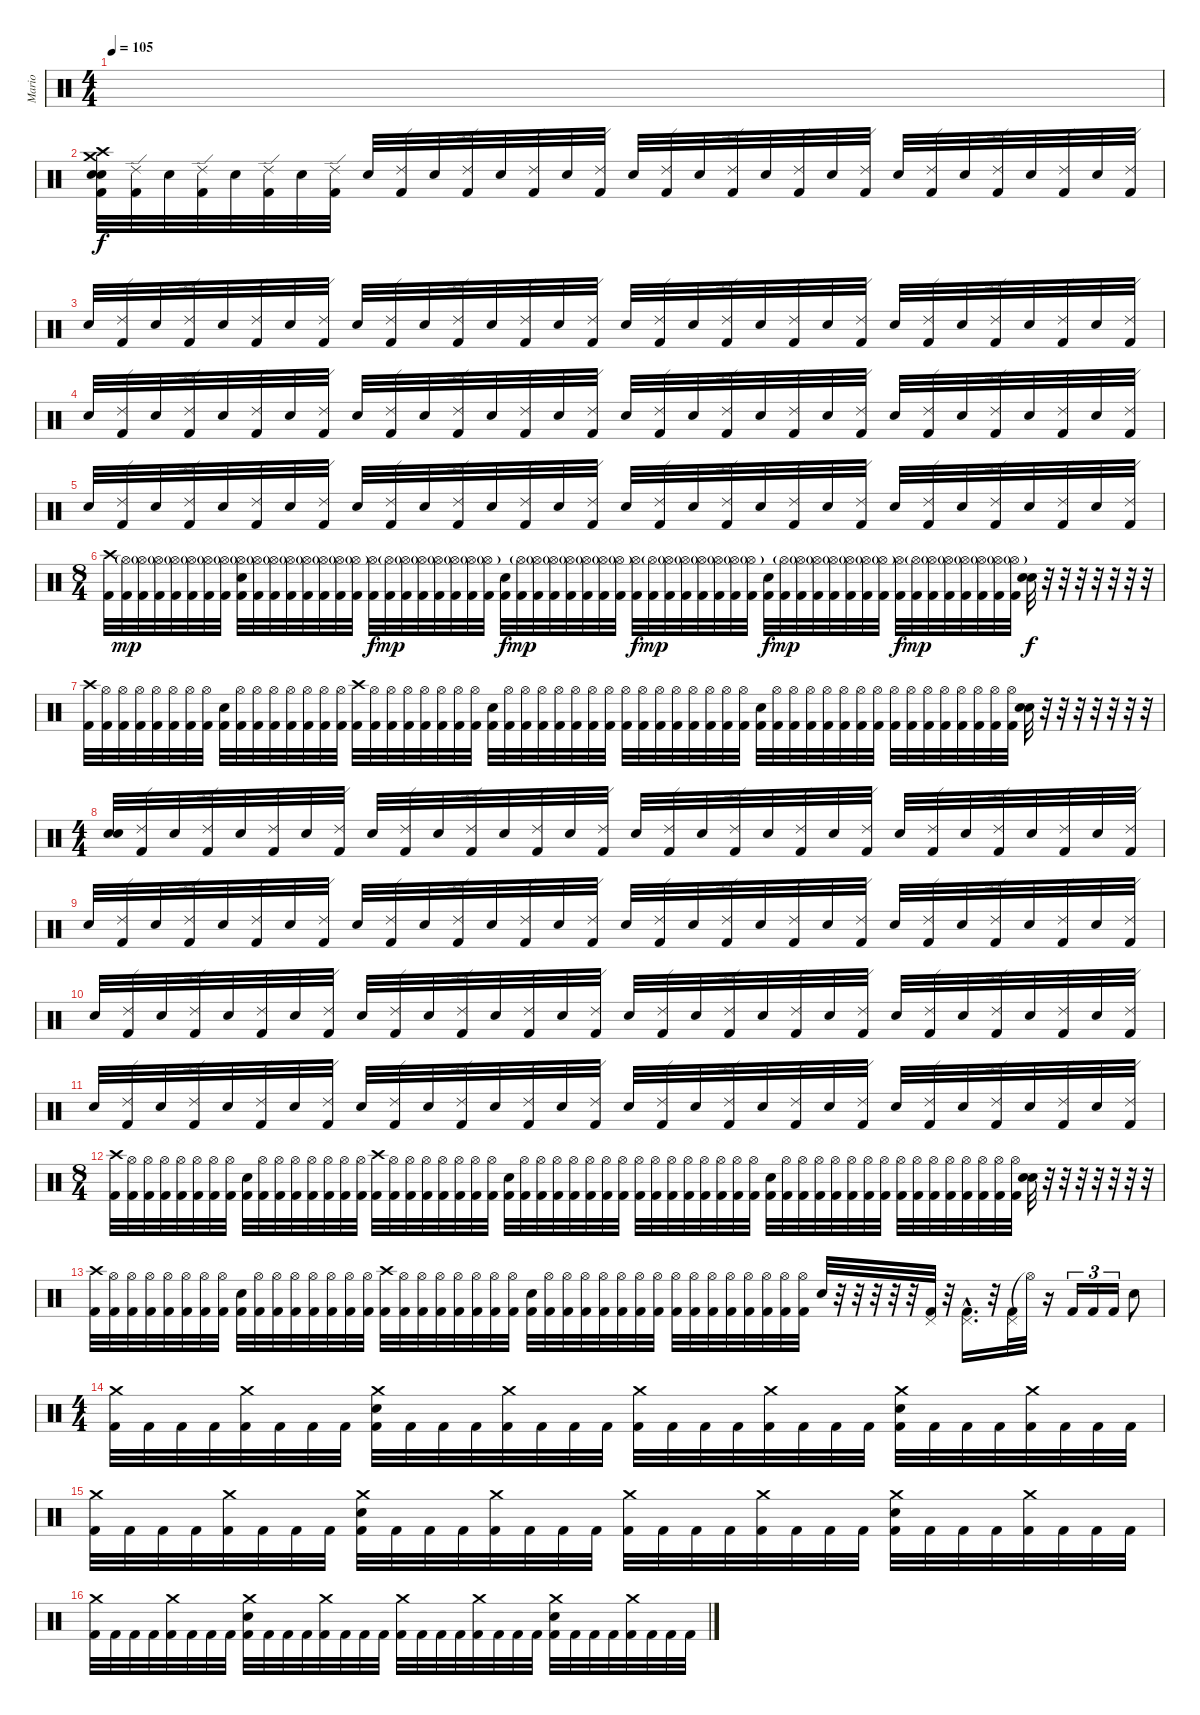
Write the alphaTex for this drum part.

\track ("Mario" "Mario") {instrument percussion}
\staff {score}
\articulation defaults
\ts (4 4)
\tempo 105
\clef neutral
\ks c
|
("Crash medium (hit)" "Crash high (hit)" "Snare (hit) 2" "Snare (hit) 2" "Kick (hit) 2").32 ("Ride (edge) 2" "Kick (hit) 2").32 "Snare (hit) 2".32 ("Ride (edge) 2" "Kick (hit) 2").32 "Snare (hit) 2".32 ("Ride (edge) 2" "Kick (hit) 2").32 "Snare (hit) 2".32 ("Ride (edge) 2" "Kick (hit) 2").32 "Snare (hit) 2".32 ("Ride (edge) 2" "Kick (hit) 2").32 "Snare (hit) 2".32 ("Ride (edge) 2" "Kick (hit) 2").32 "Snare (hit) 2".32 ("Ride (edge) 2" "Kick (hit) 2").32 "Snare (hit) 2".32 ("Ride (edge) 2" "Kick (hit) 2").32 "Snare (hit) 2".32 ("Ride (edge) 2" "Kick (hit) 2").32 "Snare (hit) 2".32 ("Ride (edge) 2" "Kick (hit) 2").32 "Snare (hit) 2".32 ("Ride (edge) 2" "Kick (hit) 2").32 "Snare (hit) 2".32 ("Ride (edge) 2" "Kick (hit) 2").32 "Snare (hit) 2".32 ("Ride (edge) 2" "Kick (hit) 2").32 "Snare (hit) 2".32 ("Ride (edge) 2" "Kick (hit) 2").32 "Snare (hit) 2".32 ("Ride (edge) 2" "Kick (hit) 2").32 "Snare (hit) 2".32 ("Ride (edge) 2" "Kick (hit) 2").32 |
"Snare (hit) 2".32 ("Ride (edge) 2" "Kick (hit) 2").32 "Snare (hit) 2".32 ("Ride (edge) 2" "Kick (hit) 2").32 "Snare (hit) 2".32 ("Ride (edge) 2" "Kick (hit) 2").32 "Snare (hit) 2".32 ("Ride (edge) 2" "Kick (hit) 2").32 "Snare (hit) 2".32 ("Ride (edge) 2" "Kick (hit) 2").32 "Snare (hit) 2".32 ("Ride (edge) 2" "Kick (hit) 2").32 "Snare (hit) 2".32 ("Ride (edge) 2" "Kick (hit) 2").32 "Snare (hit) 2".32 ("Ride (edge) 2" "Kick (hit) 2").32 "Snare (hit) 2".32 ("Ride (edge) 2" "Kick (hit) 2").32 "Snare (hit) 2".32 ("Ride (edge) 2" "Kick (hit) 2").32 "Snare (hit) 2".32 ("Ride (edge) 2" "Kick (hit) 2").32 "Snare (hit) 2".32 ("Ride (edge) 2" "Kick (hit) 2").32 "Snare (hit) 2".32 ("Ride (edge) 2" "Kick (hit) 2").32 "Snare (hit) 2".32 ("Ride (edge) 2" "Kick (hit) 2").32 "Snare (hit) 2".32 ("Ride (edge) 2" "Kick (hit) 2").32 "Snare (hit) 2".32 ("Ride (edge) 2" "Kick (hit) 2").32 |
"Snare (hit) 2".32 ("Ride (edge) 2" "Kick (hit) 2").32 "Snare (hit) 2".32 ("Ride (edge) 2" "Kick (hit) 2").32 "Snare (hit) 2".32 ("Ride (edge) 2" "Kick (hit) 2").32 "Snare (hit) 2".32 ("Ride (edge) 2" "Kick (hit) 2").32 "Snare (hit) 2".32 ("Ride (edge) 2" "Kick (hit) 2").32 "Snare (hit) 2".32 ("Ride (edge) 2" "Kick (hit) 2").32 "Snare (hit) 2".32 ("Ride (edge) 2" "Kick (hit) 2").32 "Snare (hit) 2".32 ("Ride (edge) 2" "Kick (hit) 2").32 "Snare (hit) 2".32 ("Ride (edge) 2" "Kick (hit) 2").32 "Snare (hit) 2".32 ("Ride (edge) 2" "Kick (hit) 2").32 "Snare (hit) 2".32 ("Ride (edge) 2" "Kick (hit) 2").32 "Snare (hit) 2".32 ("Ride (edge) 2" "Kick (hit) 2").32 "Snare (hit) 2".32 ("Ride (edge) 2" "Kick (hit) 2").32 "Snare (hit) 2".32 ("Ride (edge) 2" "Kick (hit) 2").32 "Snare (hit) 2".32 ("Ride (edge) 2" "Kick (hit) 2").32 "Snare (hit) 2".32 ("Ride (edge) 2" "Kick (hit) 2").32 |
"Snare (hit) 2".32 ("Ride (edge) 2" "Kick (hit) 2").32 "Snare (hit) 2".32 ("Ride (edge) 2" "Kick (hit) 2").32 "Snare (hit) 2".32 ("Ride (edge) 2" "Kick (hit) 2").32 "Snare (hit) 2".32 ("Ride (edge) 2" "Kick (hit) 2").32 "Snare (hit) 2".32 ("Ride (edge) 2" "Kick (hit) 2").32 "Snare (hit) 2".32 ("Ride (edge) 2" "Kick (hit) 2").32 "Snare (hit) 2".32 ("Ride (edge) 2" "Kick (hit) 2").32 "Snare (hit) 2".32 ("Ride (edge) 2" "Kick (hit) 2").32 "Snare (hit) 2".32 ("Ride (edge) 2" "Kick (hit) 2").32 "Snare (hit) 2".32 ("Ride (edge) 2" "Kick (hit) 2").32 "Snare (hit) 2".32 ("Ride (edge) 2" "Kick (hit) 2").32 "Snare (hit) 2".32 ("Ride (edge) 2" "Kick (hit) 2").32 "Snare (hit) 2".32 ("Ride (edge) 2" "Kick (hit) 2").32 "Snare (hit) 2".32 ("Ride (edge) 2" "Kick (hit) 2").32 "Snare (hit) 2".32 ("Ride (edge) 2" "Kick (hit) 2").32 "Snare (hit) 2".32 ("Ride (edge) 2" "Kick (hit) 2").32 |
\ts (8 4)
("Crash high (hit)" "Kick (hit) 2").32 ("Hi-Hat (open)"{g} "Kick (hit) 2").32{dy mp} ("Hi-Hat (open)"{g} "Kick (hit) 2").32 ("Hi-Hat (open)"{g} "Kick (hit) 2").32 ("Hi-Hat (open)"{g} "Kick (hit) 2").32 ("Hi-Hat (open)"{g} "Kick (hit) 2").32 ("Hi-Hat (open)"{g} "Kick (hit) 2").32 ("Hi-Hat (open)"{g} "Kick (hit) 2").32 ("Hi-Hat (open)"{g} "Snare (hit) 2" "Kick (hit) 2").32 ("Hi-Hat (open)"{g} "Kick (hit) 2").32 ("Hi-Hat (open)"{g} "Kick (hit) 2").32 ("Hi-Hat (open)"{g} "Kick (hit) 2").32 ("Hi-Hat (open)"{g} "Kick (hit) 2").32 ("Hi-Hat (open)"{g} "Kick (hit) 2").32 ("Hi-Hat (open)"{g} "Kick (hit) 2").32 ("Hi-Hat (open)"{g} "Kick (hit) 2").32 ("Hi-Hat (open)" "Kick (hit) 2").32{dy f} ("Hi-Hat (open)"{g} "Kick (hit) 2").32{dy mp} ("Hi-Hat (open)"{g} "Kick (hit) 2").32 ("Hi-Hat (open)"{g} "Kick (hit) 2").32 ("Hi-Hat (open)"{g} "Kick (hit) 2").32 ("Hi-Hat (open)"{g} "Kick (hit) 2").32 ("Hi-Hat (open)"{g} "Kick (hit) 2").32 ("Hi-Hat (open)"{g} "Kick (hit) 2").32 ("Snare (hit) 2" "Kick (hit) 2").32{dy f} ("Hi-Hat (open)"{g} "Kick (hit) 2").32{dy mp} ("Hi-Hat (open)"{g} "Kick (hit) 2").32 ("Hi-Hat (open)"{g} "Kick (hit) 2").32 ("Hi-Hat (open)"{g} "Kick (hit) 2").32 ("Hi-Hat (open)"{g} "Kick (hit) 2").32 ("Hi-Hat (open)"{g} "Kick (hit) 2").32 ("Hi-Hat (open)"{g} "Kick (hit) 2").32 ("Hi-Hat (open)" "Kick (hit) 2").32{dy f} ("Hi-Hat (open)"{g} "Kick (hit) 2").32{dy mp} ("Hi-Hat (open)"{g} "Kick (hit) 2").32 ("Hi-Hat (open)"{g} "Kick (hit) 2").32 ("Hi-Hat (open)"{g} "Kick (hit) 2").32 ("Hi-Hat (open)"{g} "Kick (hit) 2").32 ("Hi-Hat (open)"{g} "Kick (hit) 2").32 ("Hi-Hat (open)"{g} "Kick (hit) 2").32 ("Snare (hit) 2" "Kick (hit) 2").32{dy f} ("Hi-Hat (open)"{g} "Kick (hit) 2").32{dy mp} ("Hi-Hat (open)"{g} "Kick (hit) 2").32 ("Hi-Hat (open)"{g} "Kick (hit) 2").32 ("Hi-Hat (open)"{g} "Kick (hit) 2").32 ("Hi-Hat (open)"{g} "Kick (hit) 2").32 ("Hi-Hat (open)"{g} "Kick (hit) 2").32 ("Hi-Hat (open)"{g} "Kick (hit) 2").32 ("Hi-Hat (open)" "Kick (hit) 2").32{dy f} ("Hi-Hat (open)"{g} "Kick (hit) 2").32{dy mp} ("Hi-Hat (open)"{g} "Kick (hit) 2").32 ("Hi-Hat (open)"{g} "Kick (hit) 2").32 ("Hi-Hat (open)"{g} "Kick (hit) 2").32 ("Hi-Hat (open)"{g} "Kick (hit) 2").32 ("Hi-Hat (open)"{g} "Kick (hit) 2").32 ("Hi-Hat (open)"{g} "Kick (hit) 2").32 ("Snare (hit) 2" "Snare (hit) 2").32{dy f} r.32 r.32 r.32 r.32 r.32 r.32 r.32 |
("Crash high (hit)" "Kick (hit) 2").32 ("Hi-Hat (open)" "Kick (hit) 2").32 ("Hi-Hat (open)" "Kick (hit) 2").32 ("Hi-Hat (open)" "Kick (hit) 2").32 ("Hi-Hat (open)" "Kick (hit) 2").32 ("Hi-Hat (open)" "Kick (hit) 2").32 ("Hi-Hat (open)" "Kick (hit) 2").32 ("Hi-Hat (open)" "Kick (hit) 2").32 ("Snare (hit) 2" "Kick (hit) 2").32 ("Hi-Hat (open)" "Kick (hit) 2").32 ("Hi-Hat (open)" "Kick (hit) 2").32 ("Hi-Hat (open)" "Kick (hit) 2").32 ("Hi-Hat (open)" "Kick (hit) 2").32 ("Hi-Hat (open)" "Kick (hit) 2").32 ("Hi-Hat (open)" "Kick (hit) 2").32 ("Hi-Hat (open)" "Kick (hit) 2").32 ("Crash high (hit)" "Kick (hit) 2").32 ("Hi-Hat (open)" "Kick (hit) 2").32 ("Hi-Hat (open)" "Kick (hit) 2").32 ("Hi-Hat (open)" "Kick (hit) 2").32 ("Hi-Hat (open)" "Kick (hit) 2").32 ("Hi-Hat (open)" "Kick (hit) 2").32 ("Hi-Hat (open)" "Kick (hit) 2").32 ("Hi-Hat (open)" "Kick (hit) 2").32 ("Snare (hit) 2" "Kick (hit) 2").32 ("Hi-Hat (open)" "Kick (hit) 2").32 ("Hi-Hat (open)" "Kick (hit) 2").32 ("Hi-Hat (open)" "Kick (hit) 2").32 ("Hi-Hat (open)" "Kick (hit) 2").32 ("Hi-Hat (open)" "Kick (hit) 2").32 ("Hi-Hat (open)" "Kick (hit) 2").32 ("Hi-Hat (open)" "Kick (hit) 2").32 ("Hi-Hat (open)" "Kick (hit) 2").32 ("Hi-Hat (open)" "Kick (hit) 2").32 ("Hi-Hat (open)" "Kick (hit) 2").32 ("Hi-Hat (open)" "Kick (hit) 2").32 ("Hi-Hat (open)" "Kick (hit) 2").32 ("Hi-Hat (open)" "Kick (hit) 2").32 ("Hi-Hat (open)" "Kick (hit) 2").32 ("Hi-Hat (open)" "Kick (hit) 2").32 ("Snare (hit) 2" "Kick (hit) 2").32 ("Hi-Hat (open)" "Kick (hit) 2").32 ("Hi-Hat (open)" "Kick (hit) 2").32 ("Hi-Hat (open)" "Kick (hit) 2").32 ("Hi-Hat (open)" "Kick (hit) 2").32 ("Hi-Hat (open)" "Kick (hit) 2").32 ("Hi-Hat (open)" "Kick (hit) 2").32 ("Hi-Hat (open)" "Kick (hit) 2").32 ("Hi-Hat (open)" "Kick (hit) 2").32 ("Hi-Hat (open)" "Kick (hit) 2").32 ("Hi-Hat (open)" "Kick (hit) 2").32 ("Hi-Hat (open)" "Kick (hit) 2").32 ("Hi-Hat (open)" "Kick (hit) 2").32 ("Hi-Hat (open)" "Kick (hit) 2").32 ("Hi-Hat (open)" "Kick (hit) 2").32 ("Hi-Hat (open)" "Kick (hit) 2").32 ("Snare (hit) 2" "Snare (hit) 2").32 r.32 r.32 r.32 r.32 r.32 r.32 r.32 |
\ts (4 4)
("Snare (hit) 2" "Snare (hit) 2").32 ("Ride (edge) 2" "Kick (hit) 2").32 "Snare (hit) 2".32 ("Ride (edge) 2" "Kick (hit) 2").32 "Snare (hit) 2".32 ("Ride (edge) 2" "Kick (hit) 2").32 "Snare (hit) 2".32 ("Ride (edge) 2" "Kick (hit) 2").32 "Snare (hit) 2".32 ("Ride (edge) 2" "Kick (hit) 2").32 "Snare (hit) 2".32 ("Ride (edge) 2" "Kick (hit) 2").32 "Snare (hit) 2".32 ("Ride (edge) 2" "Kick (hit) 2").32 "Snare (hit) 2".32 ("Ride (edge) 2" "Kick (hit) 2").32 "Snare (hit) 2".32 ("Ride (edge) 2" "Kick (hit) 2").32 "Snare (hit) 2".32 ("Ride (edge) 2" "Kick (hit) 2").32 "Snare (hit) 2".32 ("Ride (edge) 2" "Kick (hit) 2").32 "Snare (hit) 2".32 ("Ride (edge) 2" "Kick (hit) 2").32 "Snare (hit) 2".32 ("Ride (edge) 2" "Kick (hit) 2").32 "Snare (hit) 2".32 ("Ride (edge) 2" "Kick (hit) 2").32 "Snare (hit) 2".32 ("Ride (edge) 2" "Kick (hit) 2").32 "Snare (hit) 2".32 ("Ride (edge) 2" "Kick (hit) 2").32 |
"Snare (hit) 2".32 ("Ride (edge) 2" "Kick (hit) 2").32 "Snare (hit) 2".32 ("Ride (edge) 2" "Kick (hit) 2").32 "Snare (hit) 2".32 ("Ride (edge) 2" "Kick (hit) 2").32 "Snare (hit) 2".32 ("Ride (edge) 2" "Kick (hit) 2").32 "Snare (hit) 2".32 ("Ride (edge) 2" "Kick (hit) 2").32 "Snare (hit) 2".32 ("Ride (edge) 2" "Kick (hit) 2").32 "Snare (hit) 2".32 ("Ride (edge) 2" "Kick (hit) 2").32 "Snare (hit) 2".32 ("Ride (edge) 2" "Kick (hit) 2").32 "Snare (hit) 2".32 ("Ride (edge) 2" "Kick (hit) 2").32 "Snare (hit) 2".32 ("Ride (edge) 2" "Kick (hit) 2").32 "Snare (hit) 2".32 ("Ride (edge) 2" "Kick (hit) 2").32 "Snare (hit) 2".32 ("Ride (edge) 2" "Kick (hit) 2").32 "Snare (hit) 2".32 ("Ride (edge) 2" "Kick (hit) 2").32 "Snare (hit) 2".32 ("Ride (edge) 2" "Kick (hit) 2").32 "Snare (hit) 2".32 ("Ride (edge) 2" "Kick (hit) 2").32 "Snare (hit) 2".32 ("Ride (edge) 2" "Kick (hit) 2").32 |
"Snare (hit) 2".32 ("Ride (edge) 2" "Kick (hit) 2").32 "Snare (hit) 2".32 ("Ride (edge) 2" "Kick (hit) 2").32 "Snare (hit) 2".32 ("Ride (edge) 2" "Kick (hit) 2").32 "Snare (hit) 2".32 ("Ride (edge) 2" "Kick (hit) 2").32 "Snare (hit) 2".32 ("Ride (edge) 2" "Kick (hit) 2").32 "Snare (hit) 2".32 ("Ride (edge) 2" "Kick (hit) 2").32 "Snare (hit) 2".32 ("Ride (edge) 2" "Kick (hit) 2").32 "Snare (hit) 2".32 ("Ride (edge) 2" "Kick (hit) 2").32 "Snare (hit) 2".32 ("Ride (edge) 2" "Kick (hit) 2").32 "Snare (hit) 2".32 ("Ride (edge) 2" "Kick (hit) 2").32 "Snare (hit) 2".32 ("Ride (edge) 2" "Kick (hit) 2").32 "Snare (hit) 2".32 ("Ride (edge) 2" "Kick (hit) 2").32 "Snare (hit) 2".32 ("Ride (edge) 2" "Kick (hit) 2").32 "Snare (hit) 2".32 ("Ride (edge) 2" "Kick (hit) 2").32 "Snare (hit) 2".32 ("Ride (edge) 2" "Kick (hit) 2").32 "Snare (hit) 2".32 ("Ride (edge) 2" "Kick (hit) 2").32 |
"Snare (hit) 2".32 ("Ride (edge) 2" "Kick (hit) 2").32 "Snare (hit) 2".32 ("Ride (edge) 2" "Kick (hit) 2").32 "Snare (hit) 2".32 ("Ride (edge) 2" "Kick (hit) 2").32 "Snare (hit) 2".32 ("Ride (edge) 2" "Kick (hit) 2").32 "Snare (hit) 2".32 ("Ride (edge) 2" "Kick (hit) 2").32 "Snare (hit) 2".32 ("Ride (edge) 2" "Kick (hit) 2").32 "Snare (hit) 2".32 ("Ride (edge) 2" "Kick (hit) 2").32 "Snare (hit) 2".32 ("Ride (edge) 2" "Kick (hit) 2").32 "Snare (hit) 2".32 ("Ride (edge) 2" "Kick (hit) 2").32 "Snare (hit) 2".32 ("Ride (edge) 2" "Kick (hit) 2").32 "Snare (hit) 2".32 ("Ride (edge) 2" "Kick (hit) 2").32 "Snare (hit) 2".32 ("Ride (edge) 2" "Kick (hit) 2").32 "Snare (hit) 2".32 ("Ride (edge) 2" "Kick (hit) 2").32 "Snare (hit) 2".32 ("Ride (edge) 2" "Kick (hit) 2").32 "Snare (hit) 2".32 ("Ride (edge) 2" "Kick (hit) 2").32 "Snare (hit) 2".32 ("Ride (edge) 2" "Kick (hit) 2").32 |
\ts (8 4)
("Crash high (hit)" "Kick (hit) 2").32 ("Hi-Hat (open)" "Kick (hit) 2").32 ("Hi-Hat (open)" "Kick (hit) 2").32 ("Hi-Hat (open)" "Kick (hit) 2").32 ("Hi-Hat (open)" "Kick (hit) 2").32 ("Hi-Hat (open)" "Kick (hit) 2").32 ("Hi-Hat (open)" "Kick (hit) 2").32 ("Hi-Hat (open)" "Kick (hit) 2").32 ("Snare (hit) 2" "Kick (hit) 2").32 ("Hi-Hat (open)" "Kick (hit) 2").32 ("Hi-Hat (open)" "Kick (hit) 2").32 ("Hi-Hat (open)" "Kick (hit) 2").32 ("Hi-Hat (open)" "Kick (hit) 2").32 ("Hi-Hat (open)" "Kick (hit) 2").32 ("Hi-Hat (open)" "Kick (hit) 2").32 ("Hi-Hat (open)" "Kick (hit) 2").32 ("Crash high (hit)" "Kick (hit) 2").32 ("Hi-Hat (open)" "Kick (hit) 2").32 ("Hi-Hat (open)" "Kick (hit) 2").32 ("Hi-Hat (open)" "Kick (hit) 2").32 ("Hi-Hat (open)" "Kick (hit) 2").32 ("Hi-Hat (open)" "Kick (hit) 2").32 ("Hi-Hat (open)" "Kick (hit) 2").32 ("Hi-Hat (open)" "Kick (hit) 2").32 ("Snare (hit) 2" "Kick (hit) 2").32 ("Hi-Hat (open)" "Kick (hit) 2").32 ("Hi-Hat (open)" "Kick (hit) 2").32 ("Hi-Hat (open)" "Kick (hit) 2").32 ("Hi-Hat (open)" "Kick (hit) 2").32 ("Hi-Hat (open)" "Kick (hit) 2").32 ("Hi-Hat (open)" "Kick (hit) 2").32 ("Hi-Hat (open)" "Kick (hit) 2").32 ("Hi-Hat (open)" "Kick (hit) 2").32 ("Hi-Hat (open)" "Kick (hit) 2").32 ("Hi-Hat (open)" "Kick (hit) 2").32 ("Hi-Hat (open)" "Kick (hit) 2").32 ("Hi-Hat (open)" "Kick (hit) 2").32 ("Hi-Hat (open)" "Kick (hit) 2").32 ("Hi-Hat (open)" "Kick (hit) 2").32 ("Hi-Hat (open)" "Kick (hit) 2").32 ("Snare (hit) 2" "Kick (hit) 2").32 ("Hi-Hat (open)" "Kick (hit) 2").32 ("Hi-Hat (open)" "Kick (hit) 2").32 ("Hi-Hat (open)" "Kick (hit) 2").32 ("Hi-Hat (open)" "Kick (hit) 2").32 ("Hi-Hat (open)" "Kick (hit) 2").32 ("Hi-Hat (open)" "Kick (hit) 2").32 ("Hi-Hat (open)" "Kick (hit) 2").32 ("Hi-Hat (open)" "Kick (hit) 2").32 ("Hi-Hat (open)" "Kick (hit) 2").32 ("Hi-Hat (open)" "Kick (hit) 2").32 ("Hi-Hat (open)" "Kick (hit) 2").32 ("Hi-Hat (open)" "Kick (hit) 2").32 ("Hi-Hat (open)" "Kick (hit) 2").32 ("Hi-Hat (open)" "Kick (hit) 2").32 ("Hi-Hat (open)" "Kick (hit) 2").32 ("Snare (hit) 2" "Snare (hit) 2").32 r.32 r.32 r.32 r.32 r.32 r.32 r.32 |
("Crash high (hit)" "Kick (hit) 2").32 ("Hi-Hat (open)" "Kick (hit) 2").32 ("Hi-Hat (open)" "Kick (hit) 2").32 ("Hi-Hat (open)" "Kick (hit) 2").32 ("Hi-Hat (open)" "Kick (hit) 2").32 ("Hi-Hat (open)" "Kick (hit) 2").32 ("Hi-Hat (open)" "Kick (hit) 2").32 ("Hi-Hat (open)" "Kick (hit) 2").32 ("Snare (hit) 2" "Kick (hit) 2").32 ("Hi-Hat (open)" "Kick (hit) 2").32 ("Hi-Hat (open)" "Kick (hit) 2").32 ("Hi-Hat (open)" "Kick (hit) 2").32 ("Hi-Hat (open)" "Kick (hit) 2").32 ("Hi-Hat (open)" "Kick (hit) 2").32 ("Hi-Hat (open)" "Kick (hit) 2").32 ("Hi-Hat (open)" "Kick (hit) 2").32 ("Crash high (hit)" "Kick (hit) 2").32 ("Hi-Hat (open)" "Kick (hit) 2").32 ("Hi-Hat (open)" "Kick (hit) 2").32 ("Hi-Hat (open)" "Kick (hit) 2").32 ("Hi-Hat (open)" "Kick (hit) 2").32 ("Hi-Hat (open)" "Kick (hit) 2").32 ("Hi-Hat (open)" "Kick (hit) 2").32 ("Hi-Hat (open)" "Kick (hit) 2").32 ("Snare (hit) 2" "Kick (hit) 2").32 ("Hi-Hat (open)" "Kick (hit) 2").32 ("Hi-Hat (open)" "Kick (hit) 2").32 ("Hi-Hat (open)" "Kick (hit) 2").32 ("Hi-Hat (open)" "Kick (hit) 2").32 ("Hi-Hat (open)" "Kick (hit) 2").32 ("Hi-Hat (open)" "Kick (hit) 2").32 ("Hi-Hat (open)" "Kick (hit) 2").32 ("Hi-Hat (open)" "Kick (hit) 2").32 ("Hi-Hat (open)" "Kick (hit) 2").32 ("Hi-Hat (open)" "Kick (hit) 2").32 ("Hi-Hat (open)" "Kick (hit) 2").32 ("Hi-Hat (open)" "Kick (hit) 2").32 ("Hi-Hat (open)" "Kick (hit) 2").32 ("Hi-Hat (open)" "Kick (hit) 2").32 ("Hi-Hat (open)" "Kick (hit) 2").32 "Snare (hit) 2".32 r.32 r.32 r.32 r.32 r.32 ("Pedal Hi-Hat (hit)" "Kick (hit) 2").32 r.32 ("Pedal Hi-Hat (hit)"{hac} "Kick (hit) 2"{hac}).16{d} r.32 ("Pedal Hi-Hat (hit)" "Kick (hit) 2").32 "Hi-Hat (open)"{t}.32 r.16 "Kick (hit) 2".16{tu (3 2)} "Kick (hit) 2".16{tu (3 2)} "Kick (hit) 2".16{tu (3 2)} "Snare (hit) 2".8 |
\ts (4 4)
("Crash medium (hit)" "Kick (hit) 2").32 "Kick (hit) 2".32 "Kick (hit) 2".32 "Kick (hit) 2".32 ("Crash medium (hit)" "Kick (hit) 2").32 "Kick (hit) 2".32 "Kick (hit) 2".32 "Kick (hit) 2".32 ("Crash medium (hit)" "Snare (hit) 2" "Kick (hit) 2").32 "Kick (hit) 2".32 "Kick (hit) 2".32 "Kick (hit) 2".32 ("Crash medium (hit)" "Kick (hit) 2").32 "Kick (hit) 2".32 "Kick (hit) 2".32 "Kick (hit) 2".32 ("Crash medium (hit)" "Kick (hit) 2").32 "Kick (hit) 2".32 "Kick (hit) 2".32 "Kick (hit) 2".32 ("Crash medium (hit)" "Kick (hit) 2").32 "Kick (hit) 2".32 "Kick (hit) 2".32 "Kick (hit) 2".32 ("Crash medium (hit)" "Snare (hit) 2" "Kick (hit) 2").32 "Kick (hit) 2".32 "Kick (hit) 2".32 "Kick (hit) 2".32 ("Crash medium (hit)" "Kick (hit) 2").32 "Kick (hit) 2".32 "Kick (hit) 2".32 "Kick (hit) 2".32 |
("Crash medium (hit)" "Kick (hit) 2").32 "Kick (hit) 2".32 "Kick (hit) 2".32 "Kick (hit) 2".32 ("Crash medium (hit)" "Kick (hit) 2").32 "Kick (hit) 2".32 "Kick (hit) 2".32 "Kick (hit) 2".32 ("Crash medium (hit)" "Snare (hit) 2" "Kick (hit) 2").32 "Kick (hit) 2".32 "Kick (hit) 2".32 "Kick (hit) 2".32 ("Crash medium (hit)" "Kick (hit) 2").32 "Kick (hit) 2".32 "Kick (hit) 2".32 "Kick (hit) 2".32 ("Crash medium (hit)" "Kick (hit) 2").32 "Kick (hit) 2".32 "Kick (hit) 2".32 "Kick (hit) 2".32 ("Crash medium (hit)" "Kick (hit) 2").32 "Kick (hit) 2".32 "Kick (hit) 2".32 "Kick (hit) 2".32 ("Crash medium (hit)" "Snare (hit) 2" "Kick (hit) 2").32 "Kick (hit) 2".32 "Kick (hit) 2".32 "Kick (hit) 2".32 ("Crash medium (hit)" "Kick (hit) 2").32 "Kick (hit) 2".32 "Kick (hit) 2".32 "Kick (hit) 2".32 |
("Crash medium (hit)" "Kick (hit) 2").32 "Kick (hit) 2".32 "Kick (hit) 2".32 "Kick (hit) 2".32 ("Crash medium (hit)" "Kick (hit) 2").32 "Kick (hit) 2".32 "Kick (hit) 2".32 "Kick (hit) 2".32 ("Crash medium (hit)" "Snare (hit) 2" "Kick (hit) 2").32 "Kick (hit) 2".32 "Kick (hit) 2".32 "Kick (hit) 2".32 ("Crash medium (hit)" "Kick (hit) 2").32 "Kick (hit) 2".32 "Kick (hit) 2".32 "Kick (hit) 2".32 ("Crash medium (hit)" "Kick (hit) 2").32 "Kick (hit) 2".32 "Kick (hit) 2".32 "Kick (hit) 2".32 ("Crash medium (hit)" "Kick (hit) 2").32 "Kick (hit) 2".32 "Kick (hit) 2".32 "Kick (hit) 2".32 ("Crash medium (hit)" "Snare (hit) 2" "Kick (hit) 2").32 "Kick (hit) 2".32 "Kick (hit) 2".32 "Kick (hit) 2".32 ("Crash medium (hit)" "Kick (hit) 2").32 "Kick (hit) 2".32 "Kick (hit) 2".32 "Kick (hit) 2".32
